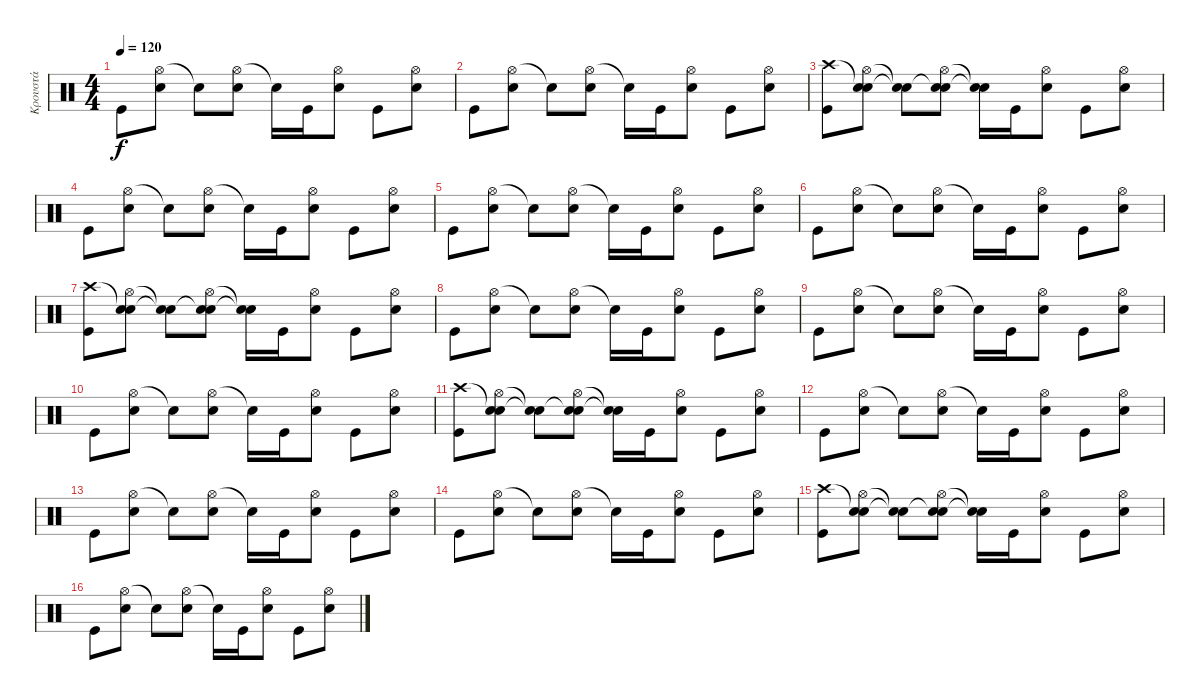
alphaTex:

\track ("Κρουστά" "Κρουστά") {instrument percussion}
\staff {score}
\articulation defaults
\ts (4 4)
\tempo 120
\clef neutral
\ks c "Kick (hit)".8{dy f}
("Hi-Hat (open)" "Snare (hit) 2").8 "Snare (hit)"{t}.8 ("Hi-Hat (open)" "Snare (hit) 2").8 "Snare (hit)"{t}.16 "Kick (hit)".16 ("Hi-Hat (open)" "Snare (hit) 2").8 "Kick (hit)".8 ("Hi-Hat (open)" "Snare (hit) 2").8 |
"Kick (hit)".8 ("Hi-Hat (open)" "Snare (hit) 2").8 "Snare (hit)"{t}.8 ("Hi-Hat (open)" "Snare (hit) 2").8 "Snare (hit)"{t}.16 "Kick (hit)".16 ("Hi-Hat (open)" "Snare (hit) 2").8 "Kick (hit)".8 ("Hi-Hat (open)" "Snare (hit) 2").8 |
("Crash high (hit)" "Kick (hit)").8 ("Snare (hit)"{t} "Hi-Hat (open)" "Snare (hit) 2").8 ("Snare (hit)"{t} "Snare (hit)"{t}).8 ("Snare (hit)"{t} "Hi-Hat (open)" "Snare (hit) 2").8 ("Snare (hit)"{t} "Snare (hit)"{t}).16 "Kick (hit)".16 ("Hi-Hat (open)" "Snare (hit) 2").8 "Kick (hit)".8 ("Hi-Hat (open)" "Snare (hit) 2").8 |
"Kick (hit)".8 ("Hi-Hat (open)" "Snare (hit) 2").8 "Snare (hit)"{t}.8 ("Hi-Hat (open)" "Snare (hit) 2").8 "Snare (hit)"{t}.16 "Kick (hit)".16 ("Hi-Hat (open)" "Snare (hit) 2").8 "Kick (hit)".8 ("Hi-Hat (open)" "Snare (hit) 2").8 |
"Kick (hit)".8 ("Hi-Hat (open)" "Snare (hit) 2").8 "Snare (hit)"{t}.8 ("Hi-Hat (open)" "Snare (hit) 2").8 "Snare (hit)"{t}.16 "Kick (hit)".16 ("Hi-Hat (open)" "Snare (hit) 2").8 "Kick (hit)".8 ("Hi-Hat (open)" "Snare (hit) 2").8 |
"Kick (hit)".8 ("Hi-Hat (open)" "Snare (hit) 2").8 "Snare (hit)"{t}.8 ("Hi-Hat (open)" "Snare (hit) 2").8 "Snare (hit)"{t}.16 "Kick (hit)".16 ("Hi-Hat (open)" "Snare (hit) 2").8 "Kick (hit)".8 ("Hi-Hat (open)" "Snare (hit) 2").8 |
("Crash high (hit)" "Kick (hit)").8 ("Snare (hit)"{t} "Hi-Hat (open)" "Snare (hit) 2").8 ("Snare (hit)"{t} "Snare (hit)"{t}).8 ("Snare (hit)"{t} "Hi-Hat (open)" "Snare (hit) 2").8 ("Snare (hit)"{t} "Snare (hit)"{t}).16 "Kick (hit)".16 ("Hi-Hat (open)" "Snare (hit) 2").8 "Kick (hit)".8 ("Hi-Hat (open)" "Snare (hit) 2").8 |
"Kick (hit)".8 ("Hi-Hat (open)" "Snare (hit) 2").8 "Snare (hit)"{t}.8 ("Hi-Hat (open)" "Snare (hit) 2").8 "Snare (hit)"{t}.16 "Kick (hit)".16 ("Hi-Hat (open)" "Snare (hit) 2").8 "Kick (hit)".8 ("Hi-Hat (open)" "Snare (hit) 2").8 |
"Kick (hit)".8 ("Hi-Hat (open)" "Snare (hit) 2").8 "Snare (hit)"{t}.8 ("Hi-Hat (open)" "Snare (hit) 2").8 "Snare (hit)"{t}.16 "Kick (hit)".16 ("Hi-Hat (open)" "Snare (hit) 2").8 "Kick (hit)".8 ("Hi-Hat (open)" "Snare (hit) 2").8 |
"Kick (hit)".8 ("Hi-Hat (open)" "Snare (hit) 2").8 "Snare (hit)"{t}.8 ("Hi-Hat (open)" "Snare (hit) 2").8 "Snare (hit)"{t}.16 "Kick (hit)".16 ("Hi-Hat (open)" "Snare (hit) 2").8 "Kick (hit)".8 ("Hi-Hat (open)" "Snare (hit) 2").8 |
("Crash high (hit)" "Kick (hit)").8 ("Snare (hit)"{t} "Hi-Hat (open)" "Snare (hit) 2").8 ("Snare (hit)"{t} "Snare (hit)"{t}).8 ("Snare (hit)"{t} "Hi-Hat (open)" "Snare (hit) 2").8 ("Snare (hit)"{t} "Snare (hit)"{t}).16 "Kick (hit)".16 ("Hi-Hat (open)" "Snare (hit) 2").8 "Kick (hit)".8 ("Hi-Hat (open)" "Snare (hit) 2").8 |
"Kick (hit)".8 ("Hi-Hat (open)" "Snare (hit) 2").8 "Snare (hit)"{t}.8 ("Hi-Hat (open)" "Snare (hit) 2").8 "Snare (hit)"{t}.16 "Kick (hit)".16 ("Hi-Hat (open)" "Snare (hit) 2").8 "Kick (hit)".8 ("Hi-Hat (open)" "Snare (hit) 2").8 |
"Kick (hit)".8 ("Hi-Hat (open)" "Snare (hit) 2").8 "Snare (hit)"{t}.8 ("Hi-Hat (open)" "Snare (hit) 2").8 "Snare (hit)"{t}.16 "Kick (hit)".16 ("Hi-Hat (open)" "Snare (hit) 2").8 "Kick (hit)".8 ("Hi-Hat (open)" "Snare (hit) 2").8 |
"Kick (hit)".8 ("Hi-Hat (open)" "Snare (hit) 2").8 "Snare (hit)"{t}.8 ("Hi-Hat (open)" "Snare (hit) 2").8 "Snare (hit)"{t}.16 "Kick (hit)".16 ("Hi-Hat (open)" "Snare (hit) 2").8 "Kick (hit)".8 ("Hi-Hat (open)" "Snare (hit) 2").8 |
("Crash high (hit)" "Kick (hit)").8 ("Snare (hit)"{t} "Hi-Hat (open)" "Snare (hit) 2").8 ("Snare (hit)"{t} "Snare (hit)"{t}).8 ("Snare (hit)"{t} "Hi-Hat (open)" "Snare (hit) 2").8 ("Snare (hit)"{t} "Snare (hit)"{t}).16 "Kick (hit)".16 ("Hi-Hat (open)" "Snare (hit) 2").8 "Kick (hit)".8 ("Hi-Hat (open)" "Snare (hit) 2").8 |
"Kick (hit)".8 ("Hi-Hat (open)" "Snare (hit) 2").8 "Snare (hit)"{t}.8 ("Hi-Hat (open)" "Snare (hit) 2").8 "Snare (hit)"{t}.16 "Kick (hit)".16 ("Hi-Hat (open)" "Snare (hit) 2").8 "Kick (hit)".8 ("Hi-Hat (open)" "Snare (hit) 2").8
